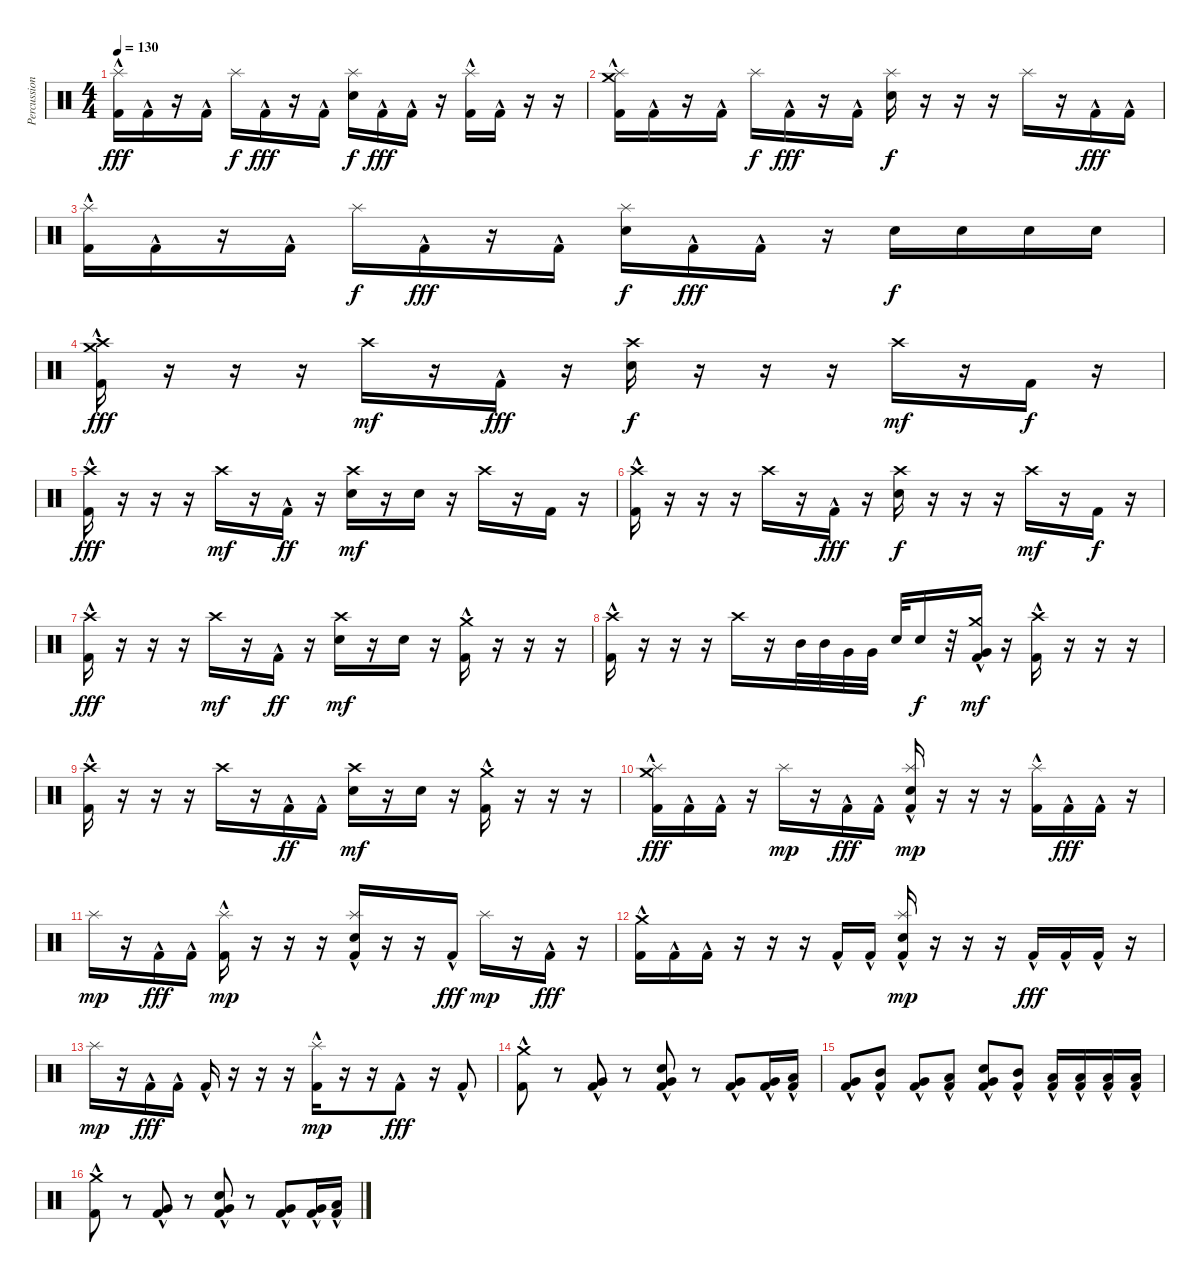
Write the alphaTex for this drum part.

\track ("Percussion" "Percussion") {instrument percussion}
\staff {score}
\articulation defaults
\ts (4 4)
\tempo 130
\clef neutral
\ks c
("Kick (hit) 2"{hac} "Splash (hit)").16{dy fff} "Kick (hit) 2"{hac}.16 r.16 "Kick (hit) 2"{hac}.16 "Splash (hit)".16{dy f} "Kick (hit) 2"{hac}.16{dy fff} r.16 "Kick (hit) 2"{hac}.16 ("Electric Snare (hit)" "Splash (hit)").16{dy f} "Kick (hit) 2"{hac}.16{dy fff} "Kick (hit) 2"{hac}.16 r.16 ("Kick (hit) 2"{hac} "Splash (hit)").16 "Kick (hit) 2"{hac}.16 r.16 r.16 |
("Kick (hit) 2"{hac} "Splash (hit)" "Crash medium (hit)").16 "Kick (hit) 2"{hac}.16 r.16 "Kick (hit) 2"{hac}.16 "Splash (hit)".16{dy f} "Kick (hit) 2"{hac}.16{dy fff} r.16 "Kick (hit) 2"{hac}.16 ("Electric Snare (hit)" "Splash (hit)").16{dy f} r.16 r.16 r.16 "Splash (hit)".16 r.16 "Kick (hit) 2"{hac}.16{dy fff} "Kick (hit) 2"{hac}.16 |
("Kick (hit) 2"{hac} "Splash (hit)").16 "Kick (hit) 2"{hac}.16 r.16 "Kick (hit) 2"{hac}.16 "Splash (hit)".16{dy f} "Kick (hit) 2"{hac}.16{dy fff} r.16 "Kick (hit) 2"{hac}.16 ("Electric Snare (hit)" "Splash (hit)").16{dy f} "Kick (hit) 2"{hac}.16{dy fff} "Kick (hit) 2"{hac}.16 r.16 "Electric Snare (hit)".16{dy f} "Electric Snare (hit)".16 "Electric Snare (hit)".16 "Electric Snare (hit)".16 |
("Kick (hit) 2"{hac} "Crash medium (hit)" "Crash high (hit)").16{dy fff} r.16 r.16 r.16 "Crash high (hit)".16{dy mf} r.16 "Kick (hit) 2"{hac}.16{dy fff} r.16 ("Electric Snare (hit)" "Crash high (hit)").16{dy f} r.16 r.16 r.16 "Crash high (hit)".16{dy mf} r.16 "Kick (hit) 2".16{dy f} r.16 |
("Kick (hit) 2"{hac} "Crash high (hit)").16{dy fff} r.16 r.16 r.16 "Crash high (hit)".16{dy mf} r.16 "Kick (hit) 2"{hac}.16{dy ff} r.16 ("Electric Snare (hit)" "Crash high (hit)").16{dy mf} r.16 "Electric Snare (hit)".16 r.16 "Crash high (hit)".16 r.16 "Kick (hit) 2".16 r.16 |
("Kick (hit) 2"{hac} "Crash high (hit)").16 r.16 r.16 r.16 "Crash high (hit)".16 r.16 "Kick (hit) 2"{hac}.16{dy fff} r.16 ("Electric Snare (hit)" "Crash high (hit)").16{dy f} r.16 r.16 r.16 "Crash high (hit)".16{dy mf} r.16 "Kick (hit) 2".16{dy f} r.16 |
("Kick (hit) 2"{hac} "Crash high (hit)").16{dy fff} r.16 r.16 r.16 "Crash high (hit)".16{dy mf} r.16 "Kick (hit) 2"{hac}.16{dy ff} r.16 ("Electric Snare (hit)" "Crash high (hit)").16{dy mf} r.16 "Electric Snare (hit)".16 r.16 ("Kick (hit) 2"{hac} "Crash medium (hit)").16 r.16 r.16 r.16 |
("Kick (hit) 2"{hac} "Crash high (hit)").16 r.16 r.16 r.16 "Crash high (hit)".16 r.16 "Mid Tom (hit)".32 "Mid Tom (hit)".32 "Very Low Tom (hit)".32 "Very Low Tom (hit)".32 "Electric Snare (hit)".32 "Electric Snare (hit)".16{dy f} r.32 ("Kick (hit) 2"{hac} "Very Low Tom (hit)" "Crash medium (hit)").16{dy mf} r.16 ("Kick (hit) 2"{hac} "Crash high (hit)").16 r.16 r.16 r.16 |
("Kick (hit) 2"{hac} "Crash high (hit)").16 r.16 r.16 r.16 "Crash high (hit)".16 r.16 "Kick (hit) 2"{hac}.16{dy ff} "Kick (hit) 2"{hac}.16 ("Electric Snare (hit)" "Crash high (hit)").16{dy mf} r.16 "Electric Snare (hit)".16 r.16 ("Kick (hit) 2"{hac} "Crash medium (hit)").16 r.16 r.16 r.16 |
("Kick (hit) 2"{hac} "Splash (hit)" "Crash medium (hit)").16{dy fff} "Kick (hit) 2"{hac}.16 "Kick (hit) 2"{hac}.16 r.16 "Splash (hit)".16{dy mp} r.16 "Kick (hit) 2"{hac}.16{dy fff} "Kick (hit) 2"{hac}.16 ("Kick (hit) 2"{hac} "Electric Snare (hit)" "Splash (hit)").16{dy mp} r.16 r.16 r.16 ("Kick (hit) 2"{hac} "Splash (hit)").16 "Kick (hit) 2"{hac}.16{dy fff} "Kick (hit) 2"{hac}.16 r.16 |
"Splash (hit)".16{dy mp} r.16 "Kick (hit) 2"{hac}.16{dy fff} "Kick (hit) 2"{hac}.16 ("Kick (hit) 2"{hac} "Splash (hit)").16{dy mp} r.16 r.16 r.16 ("Kick (hit) 2"{hac} "Electric Snare (hit)" "Splash (hit)").16 r.16 r.16 "Kick (hit) 2"{hac}.16{dy fff} "Splash (hit)".16{dy mp} r.16 "Kick (hit) 2"{hac}.16{dy fff} r.16 |
("Kick (hit) 2"{hac} "Crash medium (hit)").16 "Kick (hit) 2"{hac}.16 "Kick (hit) 2"{hac}.16 r.16 r.16 r.16 "Kick (hit) 2"{hac}.16 "Kick (hit) 2"{hac}.16 ("Kick (hit) 2"{hac} "Electric Snare (hit)" "Splash (hit)").16{dy mp} r.16 r.16 r.16 "Kick (hit) 2"{hac}.16{dy fff} "Kick (hit) 2"{hac}.16 "Kick (hit) 2"{hac}.16 r.16 |
"Splash (hit)".16{dy mp} r.16 "Kick (hit) 2"{hac}.16{dy fff} "Kick (hit) 2"{hac}.16 "Kick (hit) 2"{hac}.16 r.16 r.16 r.16 ("Kick (hit) 2"{hac} "Splash (hit)").16{dy mp} r.16 r.16 "Kick (hit) 2"{hac}.8{dy fff} r.16 "Kick (hit) 2"{hac}.8 |
("Kick (hit) 2"{hac} "Crash medium (hit)").8 r.8 ("Kick (hit) 2"{hac} "Very Low Tom (hit)"{hac}).8 r.8 ("Kick (hit) 2"{hac} "Electric Snare (hit)" "Very Low Tom (hit)"{hac}).8 r.8 ("Kick (hit) 2"{hac} "Very Low Tom (hit)"{hac}).8 ("Kick (hit) 2"{hac} "Very Low Tom (hit)").16 ("Kick (hit) 2"{hac} "Low Tom (hit)").16 |
("Kick (hit) 2"{hac} "Very Low Tom (hit)"{hac}).8 ("Kick (hit) 2"{hac} "Mid Tom (hit)"{hac}).8 ("Kick (hit) 2"{hac} "Very Low Tom (hit)"{hac}).8 ("Kick (hit) 2"{hac} "Low Tom (hit)"{hac}).8 ("Kick (hit) 2"{hac} "Electric Snare (hit)"{hac} "Very Low Tom (hit)"{hac}).8 ("Kick (hit) 2"{hac} "Mid Tom (hit)"{hac}).8 ("Kick (hit) 2"{hac} "Low Tom (hit)"{hac}).16 ("Kick (hit) 2"{hac} "Low Tom (hit)"{hac}).16 ("Kick (hit) 2"{hac} "Low Tom (hit)"{hac}).16 ("Kick (hit) 2"{hac} "Low Tom (hit)"{hac}).16 |
("Kick (hit) 2"{hac} "Crash medium (hit)").8 r.8 ("Kick (hit) 2"{hac} "Very Low Tom (hit)"{hac}).8 r.8 ("Kick (hit) 2"{hac} "Electric Snare (hit)" "Very Low Tom (hit)"{hac}).8 r.8 ("Kick (hit) 2"{hac} "Very Low Tom (hit)"{hac}).8 ("Kick (hit) 2"{hac} "Very Low Tom (hit)").16 ("Kick (hit) 2"{hac} "Low Tom (hit)").16
